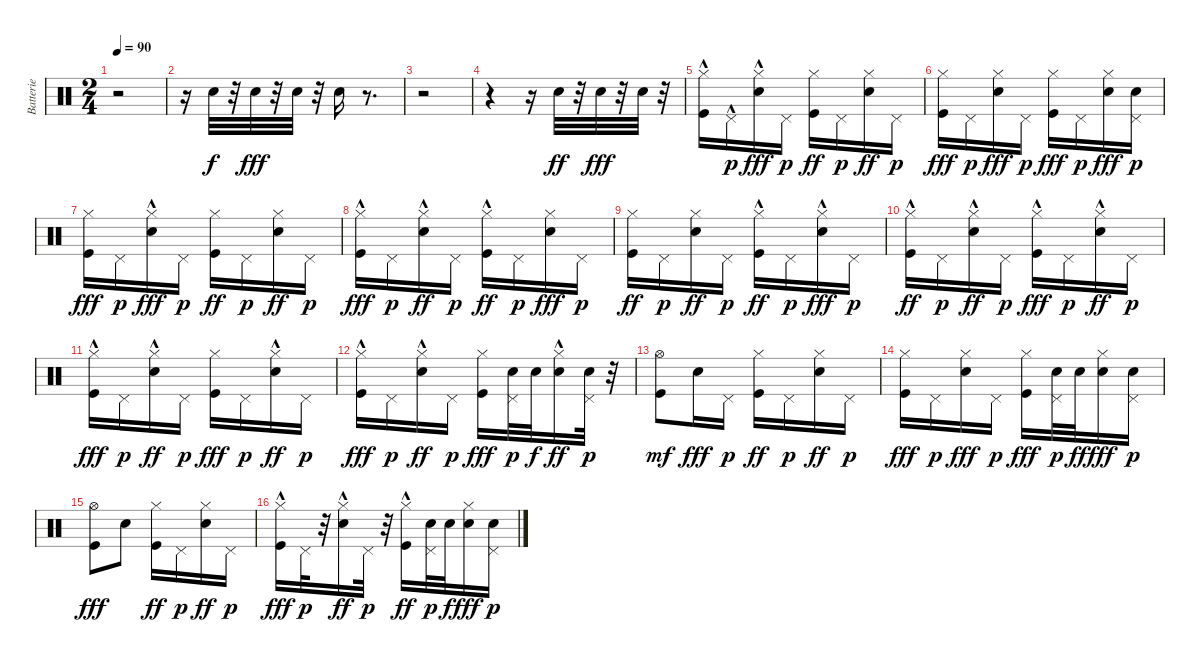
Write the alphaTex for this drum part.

\track ("Batterie" "Batterie") {instrument percussion}
\staff {score}
\articulation defaults
\ts (2 4)
\tempo 90
\clef neutral
\ks c
r.2{dy f} |
r.16 "Snare (hit) 2".32 r.32 "Snare (hit) 2".32{dy fff} r.32 "Snare (hit) 2".32 r.32 "Snare (hit) 2".16 r.8{d} |
r.2 |
r.4 r.16 "Snare (hit) 2".32{dy ff} r.32 "Snare (hit) 2".32{dy fff} r.32 "Snare (hit) 2".32 r.32 |
("Kick (hit)" "Hi-Hat (closed)"{hac}).16 "Pedal Hi-Hat (hit)"{hac}.16{dy p} ("Snare (hit) 2" "Hi-Hat (closed)"{hac}).16{dy fff} "Pedal Hi-Hat (hit)".16{dy p} ("Kick (hit)" "Hi-Hat (closed)").16{dy ff} "Pedal Hi-Hat (hit)".16{dy p} ("Snare (hit) 2" "Hi-Hat (closed)").16{dy ff} "Pedal Hi-Hat (hit)".16{dy p} |
("Kick (hit)" "Hi-Hat (closed)").16{dy fff} "Pedal Hi-Hat (hit)".16{dy p} ("Snare (hit) 2" "Hi-Hat (closed)").16{dy fff} "Pedal Hi-Hat (hit)".16{dy p} ("Kick (hit)" "Hi-Hat (closed)").16{dy fff} "Pedal Hi-Hat (hit)".16{dy p} ("Snare (hit) 2" "Hi-Hat (closed)").16{dy fff} ("Snare (hit) 2" "Pedal Hi-Hat (hit)").16{dy p} |
("Kick (hit)" "Hi-Hat (closed)").16{dy fff} "Pedal Hi-Hat (hit)".16{dy p} ("Snare (hit) 2" "Hi-Hat (closed)"{hac}).16{dy fff} "Pedal Hi-Hat (hit)".16{dy p} ("Kick (hit)" "Hi-Hat (closed)").16{dy ff} "Pedal Hi-Hat (hit)".16{dy p} ("Snare (hit) 2" "Hi-Hat (closed)").16{dy ff} "Pedal Hi-Hat (hit)".16{dy p} |
("Kick (hit)" "Hi-Hat (closed)"{hac}).16{dy fff} "Pedal Hi-Hat (hit)".16{dy p} ("Snare (hit) 2" "Hi-Hat (closed)"{hac}).16{dy ff} "Pedal Hi-Hat (hit)".16{dy p} ("Kick (hit)" "Hi-Hat (closed)"{hac}).16{dy ff} "Pedal Hi-Hat (hit)".16{dy p} ("Snare (hit) 2" "Hi-Hat (closed)").16{dy fff} "Pedal Hi-Hat (hit)".16{dy p} |
("Kick (hit)" "Hi-Hat (closed)").16{dy ff} "Pedal Hi-Hat (hit)".16{dy p} ("Snare (hit) 2" "Hi-Hat (closed)").16{dy ff} "Pedal Hi-Hat (hit)".16{dy p} ("Kick (hit)" "Hi-Hat (closed)"{hac}).16{dy ff} "Pedal Hi-Hat (hit)".16{dy p} ("Snare (hit) 2" "Hi-Hat (closed)"{hac}).16{dy fff} "Pedal Hi-Hat (hit)".16{dy p} |
("Kick (hit)" "Hi-Hat (closed)"{hac}).16{dy ff} "Pedal Hi-Hat (hit)".16{dy p} ("Snare (hit) 2" "Hi-Hat (closed)"{hac}).16{dy ff} "Pedal Hi-Hat (hit)".16{dy p} ("Kick (hit)" "Hi-Hat (closed)"{hac}).16{dy fff} "Pedal Hi-Hat (hit)".16{dy p} ("Snare (hit) 2" "Hi-Hat (closed)"{hac}).16{dy ff} "Pedal Hi-Hat (hit)".16{dy p} |
("Kick (hit)" "Hi-Hat (closed)"{hac}).16{dy fff} "Pedal Hi-Hat (hit)".16{dy p} ("Snare (hit) 2" "Hi-Hat (closed)"{hac}).16{dy ff} "Pedal Hi-Hat (hit)".16{dy p} ("Kick (hit)" "Hi-Hat (closed)").16{dy fff} "Pedal Hi-Hat (hit)".16{dy p} ("Snare (hit) 2" "Hi-Hat (closed)"{hac}).16{dy ff} "Pedal Hi-Hat (hit)".16{dy p} |
("Kick (hit)" "Hi-Hat (closed)"{hac}).16{dy fff} "Pedal Hi-Hat (hit)".16{dy p} ("Snare (hit) 2" "Hi-Hat (closed)"{hac}).16{dy ff} "Pedal Hi-Hat (hit)".16{dy p} ("Kick (hit)" "Hi-Hat (closed)").16{dy fff} ("Snare (hit) 2" "Pedal Hi-Hat (hit)").32{dy p} "Snare (hit) 2".32{dy f} ("Snare (hit) 2" "Hi-Hat (closed)"{hac}).16{dy ff} ("Snare (hit) 2" "Pedal Hi-Hat (hit)").32{dy p} r.32 |
("Kick (hit)" "Hi-Hat (open)").8{dy mf} "Snare (hit) 2".16{dy fff} "Pedal Hi-Hat (hit)".16{dy p} ("Kick (hit)" "Hi-Hat (closed)").16{dy ff} "Pedal Hi-Hat (hit)".16{dy p} ("Snare (hit) 2" "Hi-Hat (closed)").16{dy ff} "Pedal Hi-Hat (hit)".16{dy p} |
("Kick (hit)" "Hi-Hat (closed)").16{dy fff} "Pedal Hi-Hat (hit)".16{dy p} ("Snare (hit) 2" "Hi-Hat (closed)").16{dy fff} "Pedal Hi-Hat (hit)".16{dy p} ("Kick (hit)" "Hi-Hat (closed)").16{dy fff} ("Snare (hit) 2" "Pedal Hi-Hat (hit)").32{dy p} "Snare (hit) 2".32{dy ff} ("Snare (hit) 2" "Hi-Hat (closed)").16{dy fff} ("Snare (hit) 2" "Pedal Hi-Hat (hit)").16{dy p} |
("Kick (hit)" "Hi-Hat (open)").8{dy fff} "Snare (hit) 2".8 ("Kick (hit)" "Hi-Hat (closed)").16{dy ff} "Pedal Hi-Hat (hit)".16{dy p} ("Snare (hit) 2" "Hi-Hat (closed)").16{dy ff} "Pedal Hi-Hat (hit)".16{dy p} |
("Kick (hit)" "Hi-Hat (closed)"{hac}).16{dy fff} "Pedal Hi-Hat (hit)".32{dy p} r.32 ("Snare (hit) 2" "Hi-Hat (closed)"{hac}).16{dy ff} "Pedal Hi-Hat (hit)".32{dy p} r.32 ("Kick (hit)" "Hi-Hat (closed)"{hac}).16{dy ff} ("Snare (hit) 2" "Pedal Hi-Hat (hit)").32{dy p} "Snare (hit) 2".32{dy f} ("Snare (hit) 2" "Hi-Hat (closed)").16{dy fff} ("Snare (hit) 2" "Pedal Hi-Hat (hit)").16{dy p}
